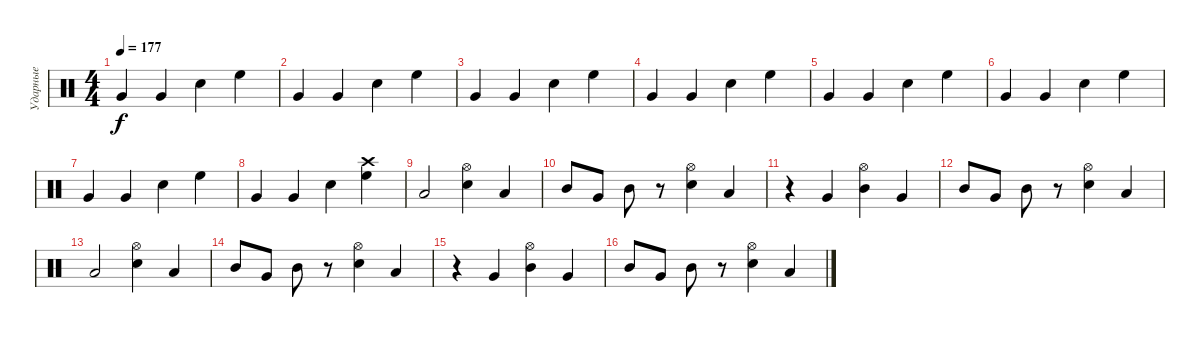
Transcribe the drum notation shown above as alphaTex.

\track ("Ударные" "Ударные") {instrument percussion}
\staff {score}
\articulation defaults
\ts (4 4)
\tempo 177
\clef neutral
\ks c "Very Low Tom (hit)".4{dy f} "Very Low Tom (hit)".4 "Electric Snare (hit)".4 "High Floor Tom (hit)".4
|
"Very Low Tom (hit)".4 "Very Low Tom (hit)".4 "Electric Snare (hit)".4 "High Floor Tom (hit)".4 |
"Very Low Tom (hit)".4 "Very Low Tom (hit)".4 "Electric Snare (hit)".4 "High Floor Tom (hit)".4 |
"Very Low Tom (hit)".4 "Very Low Tom (hit)".4 "Electric Snare (hit)".4 "High Floor Tom (hit)".4 |
"Very Low Tom (hit)".4 "Very Low Tom (hit)".4 "Electric Snare (hit)".4 "High Floor Tom (hit)".4 |
"Very Low Tom (hit)".4 "Very Low Tom (hit)".4 "Electric Snare (hit)".4 "High Floor Tom (hit)".4 |
"Very Low Tom (hit)".4 "Very Low Tom (hit)".4 "Electric Snare (hit)".4 "High Floor Tom (hit)".4 |
"Very Low Tom (hit)".4 "Very Low Tom (hit)".4 "Electric Snare (hit)".4 ("Crash high (hit)" "High Floor Tom (hit)").4 |
"Low Tom (hit)".2 ("Hi-Hat (open)" "Electric Snare (hit)").4 "Low Tom (hit)".4 |
"Mid Tom (hit)".8 "Very Low Tom (hit)".8 "Mid Tom (hit)".8 r.8 ("Hi-Hat (open)" "Electric Snare (hit)").4 "Low Tom (hit)".4 |
r.4 "Very Low Tom (hit)".4 ("Hi-Hat (open)" "Mid Tom (hit)").4 "Very Low Tom (hit)".4 |
"Mid Tom (hit)".8 "Very Low Tom (hit)".8 "Mid Tom (hit)".8 r.8 ("Hi-Hat (open)" "Electric Snare (hit)").4 "Low Tom (hit)".4 |
"Low Tom (hit)".2 ("Hi-Hat (open)" "Electric Snare (hit)").4 "Low Tom (hit)".4 |
"Mid Tom (hit)".8 "Very Low Tom (hit)".8 "Mid Tom (hit)".8 r.8 ("Hi-Hat (open)" "Electric Snare (hit)").4 "Low Tom (hit)".4 |
r.4 "Very Low Tom (hit)".4 ("Hi-Hat (open)" "Mid Tom (hit)").4 "Very Low Tom (hit)".4 |
"Mid Tom (hit)".8 "Very Low Tom (hit)".8 "Mid Tom (hit)".8 r.8 ("Hi-Hat (open)" "Electric Snare (hit)").4 "Low Tom (hit)".4
